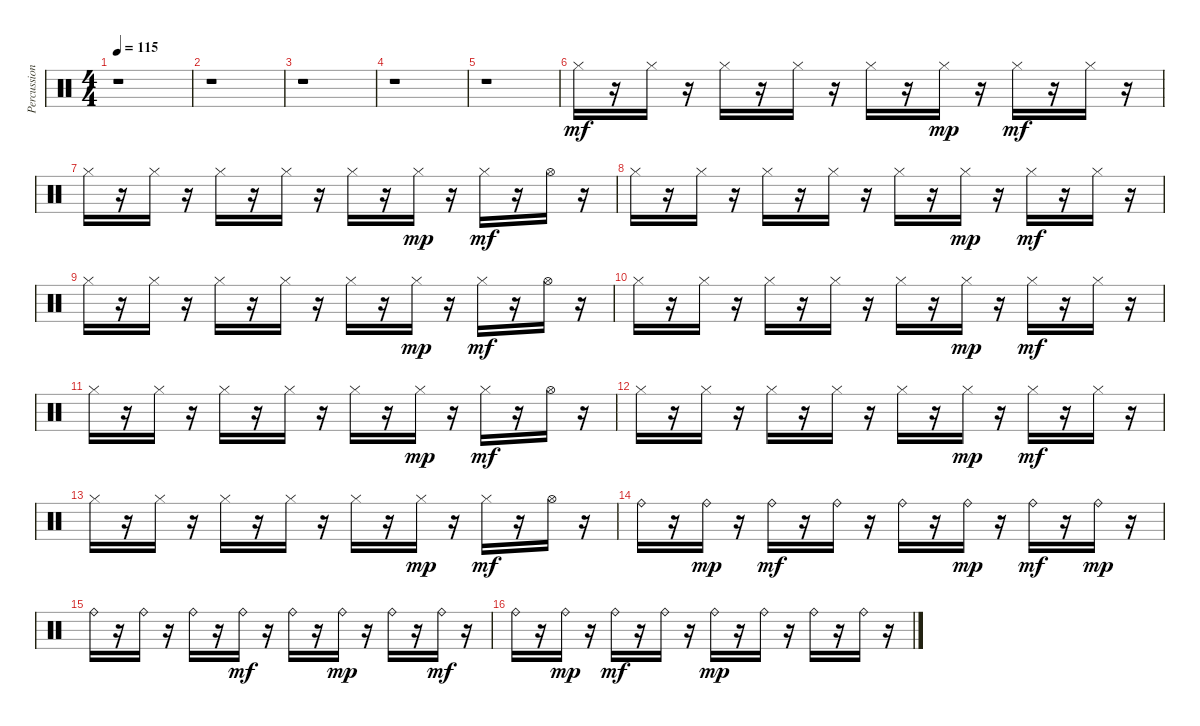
\track ("Percussion" "Percussion") {instrument percussion}
\staff {score}
\articulation defaults
\ts (4 4)
\tempo 115
\clef neutral
\ks c
r.1{dy mf} |
r.1 |
r.1 |
r.1 |
r.1 |
"Hi-Hat (closed)".16 r.16 "Hi-Hat (closed)".16 r.16 "Hi-Hat (closed)".16 r.16 "Hi-Hat (closed)".16 r.16 "Hi-Hat (closed)".16 r.16 "Hi-Hat (closed)".16{dy mp} r.16 "Hi-Hat (closed)".16{dy mf} r.16 "Hi-Hat (closed)".16 r.16 |
"Hi-Hat (closed)".16 r.16 "Hi-Hat (closed)".16 r.16 "Hi-Hat (closed)".16 r.16 "Hi-Hat (closed)".16 r.16 "Hi-Hat (closed)".16 r.16 "Hi-Hat (closed)".16{dy mp} r.16 "Hi-Hat (closed)".16{dy mf} r.16 "Hi-Hat (open)".16 r.16 |
"Hi-Hat (closed)".16 r.16 "Hi-Hat (closed)".16 r.16 "Hi-Hat (closed)".16 r.16 "Hi-Hat (closed)".16 r.16 "Hi-Hat (closed)".16 r.16 "Hi-Hat (closed)".16{dy mp} r.16 "Hi-Hat (closed)".16{dy mf} r.16 "Hi-Hat (closed)".16 r.16 |
"Hi-Hat (closed)".16 r.16 "Hi-Hat (closed)".16 r.16 "Hi-Hat (closed)".16 r.16 "Hi-Hat (closed)".16 r.16 "Hi-Hat (closed)".16 r.16 "Hi-Hat (closed)".16{dy mp} r.16 "Hi-Hat (closed)".16{dy mf} r.16 "Hi-Hat (open)".16 r.16 |
"Hi-Hat (closed)".16 r.16 "Hi-Hat (closed)".16 r.16 "Hi-Hat (closed)".16 r.16 "Hi-Hat (closed)".16 r.16 "Hi-Hat (closed)".16 r.16 "Hi-Hat (closed)".16{dy mp} r.16 "Hi-Hat (closed)".16{dy mf} r.16 "Hi-Hat (closed)".16 r.16 |
"Hi-Hat (closed)".16 r.16 "Hi-Hat (closed)".16 r.16 "Hi-Hat (closed)".16 r.16 "Hi-Hat (closed)".16 r.16 "Hi-Hat (closed)".16 r.16 "Hi-Hat (closed)".16{dy mp} r.16 "Hi-Hat (closed)".16{dy mf} r.16 "Hi-Hat (open)".16 r.16 |
"Hi-Hat (closed)".16 r.16 "Hi-Hat (closed)".16 r.16 "Hi-Hat (closed)".16 r.16 "Hi-Hat (closed)".16 r.16 "Hi-Hat (closed)".16 r.16 "Hi-Hat (closed)".16{dy mp} r.16 "Hi-Hat (closed)".16{dy mf} r.16 "Hi-Hat (closed)".16 r.16 |
"Hi-Hat (closed)".16 r.16 "Hi-Hat (closed)".16 r.16 "Hi-Hat (closed)".16 r.16 "Hi-Hat (closed)".16 r.16 "Hi-Hat (closed)".16 r.16 "Hi-Hat (closed)".16{dy mp} r.16 "Hi-Hat (closed)".16{dy mf} r.16 "Hi-Hat (open)".16 r.16 |
"Ride (bell)".16 r.16 "Ride (bell)".16{dy mp} r.16 "Ride (bell)".16{dy mf} r.16 "Ride (bell)".16 r.16 "Ride (bell)".16 r.16 "Ride (bell)".16{dy mp} r.16 "Ride (bell)".16{dy mf} r.16 "Ride (bell)".16{dy mp} r.16 |
"Ride (bell)".16 r.16 "Ride (bell)".16 r.16 "Ride (bell)".16 r.16 "Ride (bell)".16{dy mf} r.16 "Ride (bell)".16 r.16 "Ride (bell)".16{dy mp} r.16 "Ride (bell)".16 r.16 "Ride (bell)".16{dy mf} r.16 |
"Ride (bell)".16 r.16 "Ride (bell)".16{dy mp} r.16 "Ride (bell)".16{dy mf} r.16 "Ride (bell)".16 r.16 "Ride (bell)".16{dy mp} r.16 "Ride (bell)".16 r.16 "Ride (bell)".16 r.16 "Ride (bell)".16 r.16
